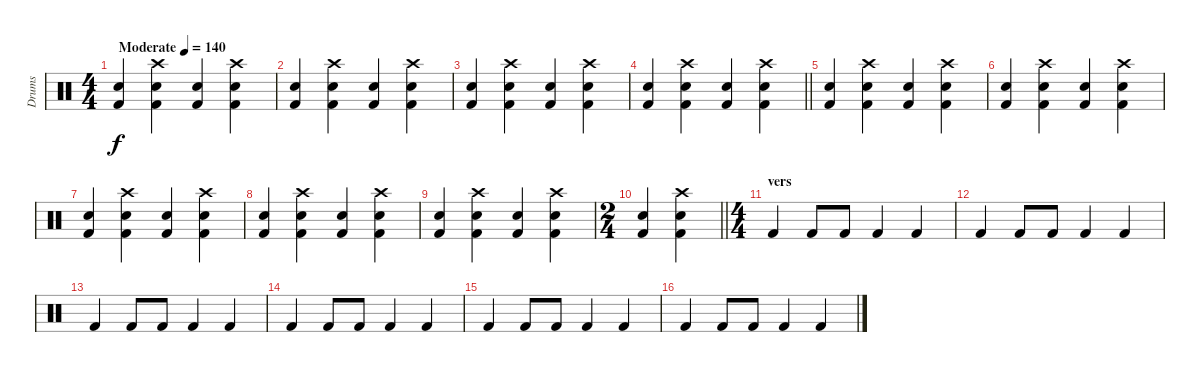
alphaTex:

\track ("Drums" "Drums") {instrument percussion}
\staff {score}
\articulation defaults
\ts (4 4)
\tempo (140 "Moderate")
\clef neutral
\ks c
("Electric Snare (hit)" "Kick (hit) 2").4{dy f} ("Electric Snare (hit)" "Crash high (hit)" "Kick (hit) 2").4 ("Electric Snare (hit)" "Kick (hit) 2").4 ("Electric Snare (hit)" "Crash high (hit)" "Kick (hit) 2").4 |
("Electric Snare (hit)" "Kick (hit) 2").4 ("Electric Snare (hit)" "Crash high (hit)" "Kick (hit) 2").4 ("Electric Snare (hit)" "Kick (hit) 2").4 ("Electric Snare (hit)" "Crash high (hit)" "Kick (hit) 2").4 |
("Electric Snare (hit)" "Kick (hit) 2").4 ("Electric Snare (hit)" "Crash high (hit)" "Kick (hit) 2").4 ("Electric Snare (hit)" "Kick (hit) 2").4 ("Electric Snare (hit)" "Crash high (hit)" "Kick (hit) 2").4 |
\barLineRight lightlight
("Electric Snare (hit)" "Kick (hit) 2").4 ("Electric Snare (hit)" "Crash high (hit)" "Kick (hit) 2").4 ("Electric Snare (hit)" "Kick (hit) 2").4 ("Electric Snare (hit)" "Crash high (hit)" "Kick (hit) 2").4 |
("Electric Snare (hit)" "Kick (hit) 2").4 ("Electric Snare (hit)" "Crash high (hit)" "Kick (hit) 2").4 ("Electric Snare (hit)" "Kick (hit) 2").4 ("Electric Snare (hit)" "Crash high (hit)" "Kick (hit) 2").4 |
("Electric Snare (hit)" "Kick (hit) 2").4 ("Electric Snare (hit)" "Crash high (hit)" "Kick (hit) 2").4 ("Electric Snare (hit)" "Kick (hit) 2").4 ("Electric Snare (hit)" "Crash high (hit)" "Kick (hit) 2").4 |
("Electric Snare (hit)" "Kick (hit) 2").4 ("Electric Snare (hit)" "Crash high (hit)" "Kick (hit) 2").4 ("Electric Snare (hit)" "Kick (hit) 2").4 ("Electric Snare (hit)" "Crash high (hit)" "Kick (hit) 2").4 |
("Electric Snare (hit)" "Kick (hit) 2").4 ("Electric Snare (hit)" "Crash high (hit)" "Kick (hit) 2").4 ("Electric Snare (hit)" "Kick (hit) 2").4 ("Electric Snare (hit)" "Crash high (hit)" "Kick (hit) 2").4 |
("Electric Snare (hit)" "Kick (hit) 2").4 ("Electric Snare (hit)" "Crash high (hit)" "Kick (hit) 2").4 ("Electric Snare (hit)" "Kick (hit) 2").4 ("Electric Snare (hit)" "Crash high (hit)" "Kick (hit) 2").4 |
\ts (2 4)
\barLineRight lightlight
("Electric Snare (hit)" "Kick (hit) 2").4 ("Electric Snare (hit)" "Crash high (hit)" "Kick (hit) 2").4 |
\ts (4 4)
\section ("" "vers")
"Kick (hit) 2".4 "Kick (hit) 2".8 "Kick (hit) 2".8 "Kick (hit) 2".4 "Kick (hit) 2".4 |
"Kick (hit) 2".4 "Kick (hit) 2".8 "Kick (hit) 2".8 "Kick (hit) 2".4 "Kick (hit) 2".4 |
"Kick (hit) 2".4 "Kick (hit) 2".8 "Kick (hit) 2".8 "Kick (hit) 2".4 "Kick (hit) 2".4 |
"Kick (hit) 2".4 "Kick (hit) 2".8 "Kick (hit) 2".8 "Kick (hit) 2".4 "Kick (hit) 2".4 |
"Kick (hit) 2".4 "Kick (hit) 2".8 "Kick (hit) 2".8 "Kick (hit) 2".4 "Kick (hit) 2".4 |
"Kick (hit) 2".4 "Kick (hit) 2".8 "Kick (hit) 2".8 "Kick (hit) 2".4 "Kick (hit) 2".4
